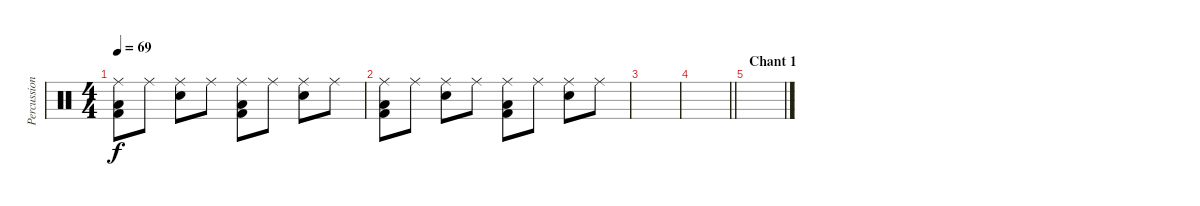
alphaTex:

\track ("Percussions" "Percussion") {instrument percussion}
\staff {score}
\articulation defaults
\ts (4 4)
\tempo 69
\clef neutral
\ks c
("Ride (middle)" "Low Floor Tom (hit)" "Kick (hit) 2").8{dy f} "Ride (middle)".8 ("Ride (middle)" "Electric Snare (hit)").8 "Ride (middle)".8 ("Ride (middle)" "Low Floor Tom (hit)" "Kick (hit) 2").8 "Ride (middle)".8 ("Ride (middle)" "Electric Snare (hit)").8 "Ride (middle)".8 |
("Ride (middle)" "Low Floor Tom (hit)" "Kick (hit) 2").8 "Ride (middle)".8 ("Ride (middle)" "Electric Snare (hit)").8 "Ride (middle)".8 ("Ride (middle)" "Low Floor Tom (hit)" "Kick (hit) 2").8 "Ride (middle)".8 ("Ride (middle)" "Electric Snare (hit)").8 "Ride (middle)".8 |
|
\barLineRight lightlight
|
\section ("" "Chant 1")
